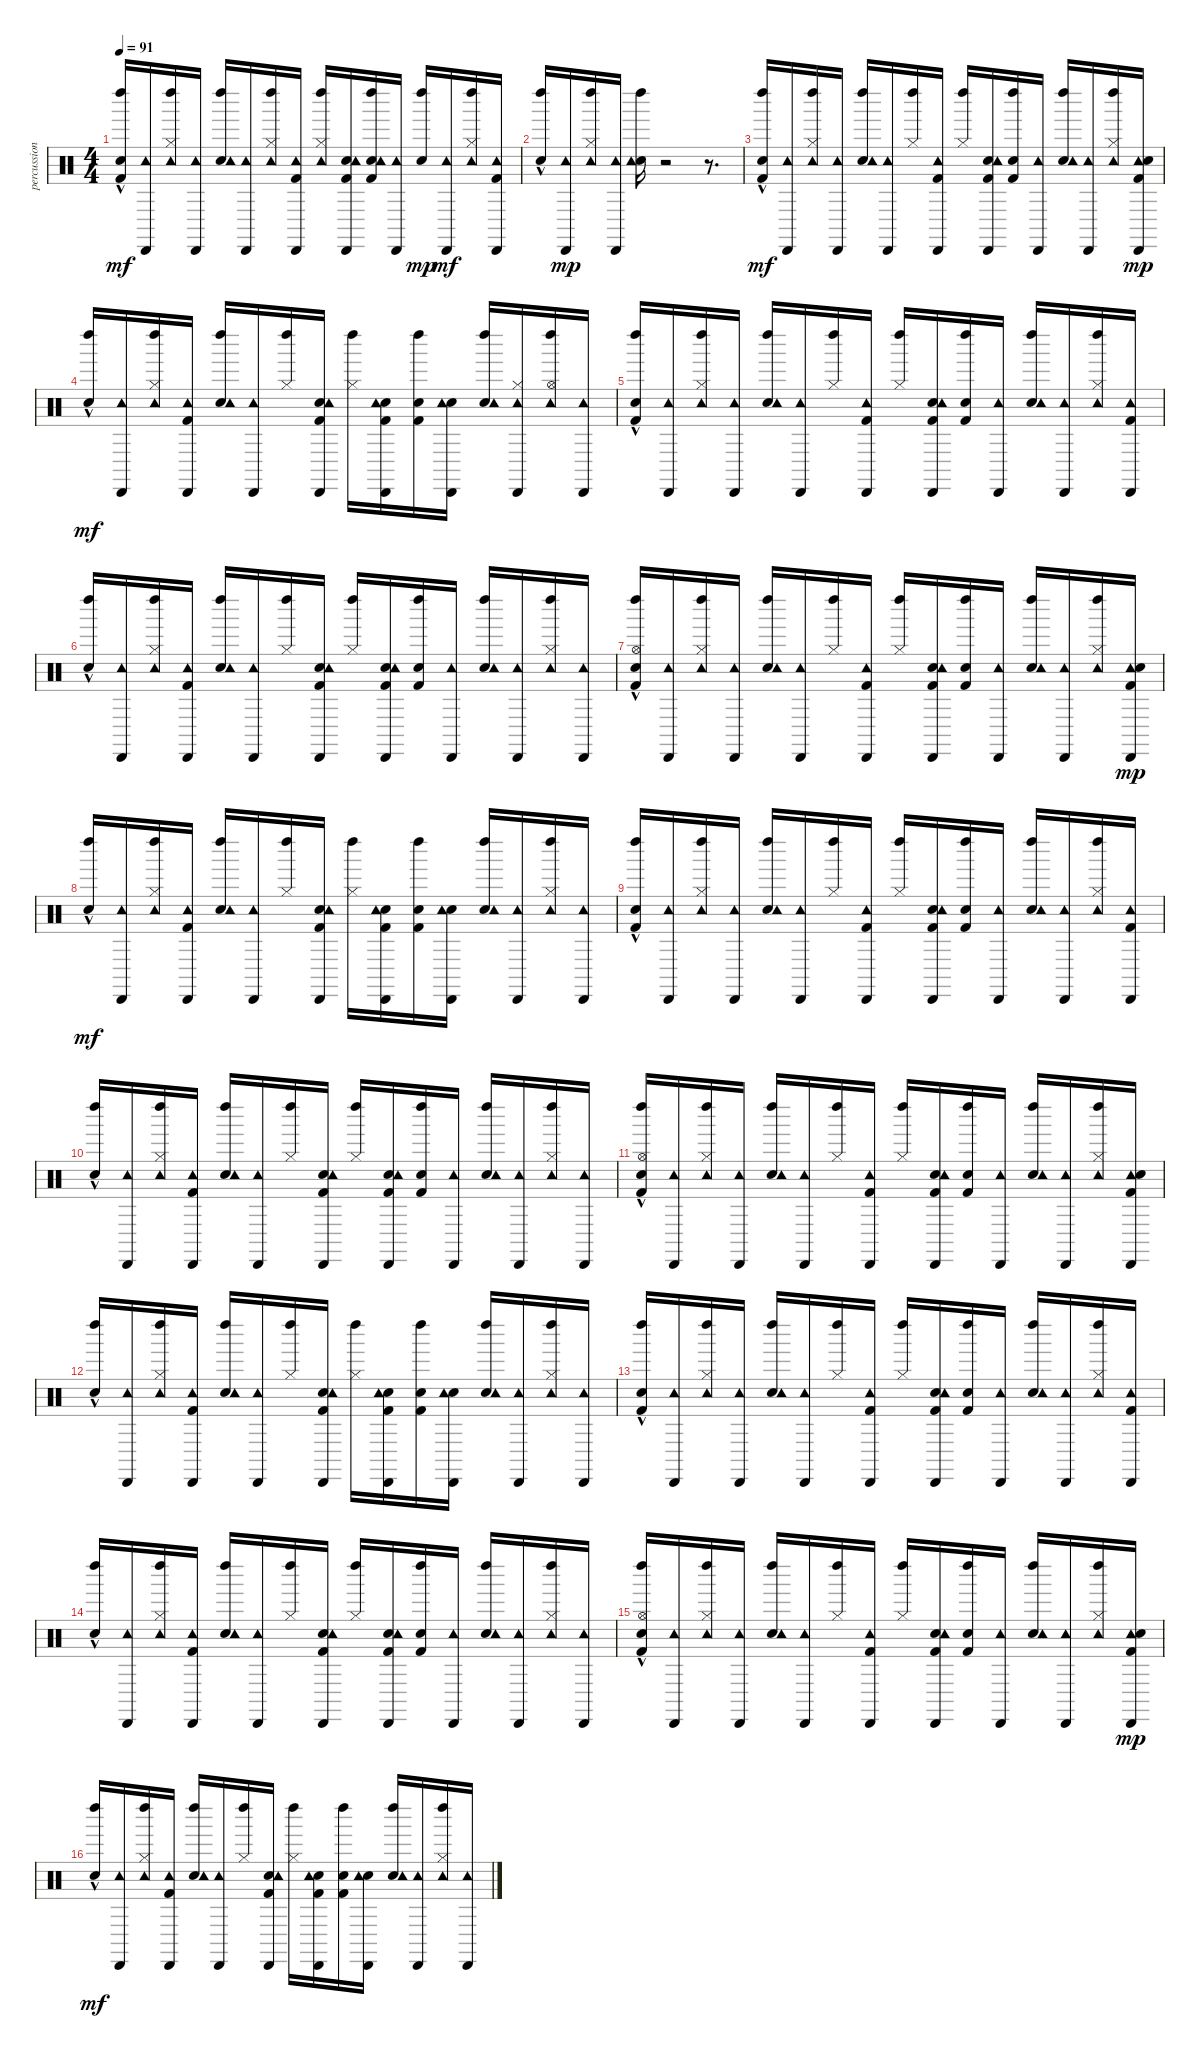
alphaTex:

\track ("percussion" "percussion") {instrument percussion}
\staff {score}
\articulation defaults
\ts (4 4)
\tempo 91
\clef neutral
\ks c
("Electric Snare (hit)"{hac} "Left Maraca (hit)" "Kick (hit) 2").16{dy mf} ("Cabasa (hit)" "Tambourine (hit)").16 ("Hi-Hat (closed)" "Left Maraca (hit)" "Tambourine (hit)").16 ("Cabasa (hit)" "Tambourine (hit)").16 ("Electric Snare (hit)" "Left Maraca (hit)" "Tambourine (hit)").16 ("Cabasa (hit)" "Tambourine (hit)").16 ("Hi-Hat (closed)" "Left Maraca (hit)" "Tambourine (hit)").16 ("Kick (hit) 2" "Cabasa (hit)" "Tambourine (hit)").16 ("Hi-Hat (closed)" "Left Maraca (hit)" "Tambourine (hit)").16 ("Electric Snare (hit)" "Kick (hit) 2" "Cabasa (hit)" "Tambourine (hit)").16 ("Electric Snare (hit)" "Left Maraca (hit)" "Tambourine (hit)" "Kick (hit) 2").16 ("Cabasa (hit)" "Tambourine (hit)").16 ("Electric Snare (hit)" "Left Maraca (hit)").16{dy mp} ("Cabasa (hit)" "Tambourine (hit)").16{dy mf} ("Hi-Hat (closed)" "Left Maraca (hit)" "Tambourine (hit)").16 ("Kick (hit) 2" "Cabasa (hit)" "Tambourine (hit)").16 |
("Left Maraca (hit)" "Electric Snare (hit)"{hac}).16 ("Tambourine (hit)" "Cabasa (hit)").16{dy mp} ("Hi-Hat (closed)" "Tambourine (hit)" "Left Maraca (hit)").16 ("Tambourine (hit)" "Cabasa (hit)").16 ("Electric Snare (hit)" "Tambourine (hit)" "Left Maraca (hit)").16 r.2 r.8{d} |
("Kick (hit) 2" "Left Maraca (hit)" "Electric Snare (hit)"{hac}).16{dy mf volume 14} ("Cabasa (hit)" "Tambourine (hit)").16 ("Hi-Hat (closed)" "Left Maraca (hit)" "Tambourine (hit)").16 ("Cabasa (hit)" "Tambourine (hit)").16 ("Electric Snare (hit)" "Left Maraca (hit)" "Tambourine (hit)").16 ("Cabasa (hit)" "Tambourine (hit)").16 ("Hi-Hat (closed)" "Left Maraca (hit)").16 ("Kick (hit) 2" "Cabasa (hit)" "Tambourine (hit)").16 ("Hi-Hat (closed)" "Left Maraca (hit)").16 ("Kick (hit) 2" "Electric Snare (hit)" "Cabasa (hit)" "Tambourine (hit)").16 ("Kick (hit) 2" "Electric Snare (hit)" "Left Maraca (hit)").16 ("Cabasa (hit)" "Tambourine (hit)").16 ("Electric Snare (hit)" "Left Maraca (hit)" "Tambourine (hit)").16 ("Cabasa (hit)" "Tambourine (hit)").16 ("Tambourine (hit)" "Hi-Hat (closed)" "Left Maraca (hit)").16 ("Kick (hit) 2" "Cabasa (hit)" "Tambourine (hit)" "Electric Snare (hit)").16{dy mp} |
("Electric Snare (hit)"{hac} "Left Maraca (hit)").16{dy mf} ("Cabasa (hit)" "Tambourine (hit)").16 ("Hi-Hat (closed)" "Left Maraca (hit)" "Tambourine (hit)").16 ("Cabasa (hit)" "Tambourine (hit)" "Kick (hit) 2").16 ("Electric Snare (hit)" "Left Maraca (hit)" "Tambourine (hit)").16 ("Cabasa (hit)" "Tambourine (hit)").16 ("Hi-Hat (closed)" "Left Maraca (hit)").16 ("Electric Snare (hit)" "Cabasa (hit)" "Tambourine (hit)" "Kick (hit) 2").16 ("Hi-Hat (closed)" "Left Maraca (hit)").16 ("Electric Snare (hit)" "Cabasa (hit)" "Tambourine (hit)" "Kick (hit) 2").16 ("Electric Snare (hit)" "Left Maraca (hit)" "Kick (hit) 2").16 ("Electric Snare (hit)" "Cabasa (hit)" "Tambourine (hit)").16 ("Electric Snare (hit)" "Left Maraca (hit)" "Tambourine (hit)").16 ("Hi-Hat (closed)" "Cabasa (hit)" "Tambourine (hit)").16 ("Tambourine (hit)" "Left Maraca (hit)" "Hi-Hat (open)").16 ("Tambourine (hit)" "Cabasa (hit)").16 |
("Electric Snare (hit)"{hac} "Kick (hit) 2" "Left Maraca (hit)").16 ("Tambourine (hit)" "Cabasa (hit)").16 ("Hi-Hat (closed)" "Tambourine (hit)" "Left Maraca (hit)").16 ("Tambourine (hit)" "Cabasa (hit)").16 ("Electric Snare (hit)" "Tambourine (hit)" "Left Maraca (hit)").16 ("Tambourine (hit)" "Cabasa (hit)").16 ("Hi-Hat (closed)" "Left Maraca (hit)").16 ("Kick (hit) 2" "Tambourine (hit)" "Cabasa (hit)").16 ("Hi-Hat (closed)" "Left Maraca (hit)").16 ("Electric Snare (hit)" "Kick (hit) 2" "Tambourine (hit)" "Cabasa (hit)").16 ("Electric Snare (hit)" "Left Maraca (hit)" "Kick (hit) 2").16 ("Tambourine (hit)" "Cabasa (hit)").16 ("Electric Snare (hit)" "Tambourine (hit)" "Left Maraca (hit)").16 ("Tambourine (hit)" "Cabasa (hit)").16 ("Tambourine (hit)" "Hi-Hat (closed)" "Left Maraca (hit)").16 ("Tambourine (hit)" "Kick (hit) 2" "Cabasa (hit)").16 |
("Left Maraca (hit)" "Electric Snare (hit)"{hac}).16 ("Cabasa (hit)" "Tambourine (hit)").16 ("Hi-Hat (closed)" "Left Maraca (hit)" "Tambourine (hit)").16 ("Cabasa (hit)" "Tambourine (hit)" "Kick (hit) 2").16 ("Electric Snare (hit)" "Left Maraca (hit)" "Tambourine (hit)").16 ("Cabasa (hit)" "Tambourine (hit)").16 ("Hi-Hat (closed)" "Left Maraca (hit)").16 ("Electric Snare (hit)" "Cabasa (hit)" "Tambourine (hit)" "Kick (hit) 2").16 ("Hi-Hat (closed)" "Left Maraca (hit)").16 ("Electric Snare (hit)" "Cabasa (hit)" "Tambourine (hit)" "Kick (hit) 2").16 ("Electric Snare (hit)" "Left Maraca (hit)" "Kick (hit) 2").16 ("Cabasa (hit)" "Tambourine (hit)").16 ("Electric Snare (hit)" "Left Maraca (hit)" "Tambourine (hit)").16 ("Cabasa (hit)" "Tambourine (hit)").16 ("Left Maraca (hit)" "Tambourine (hit)" "Hi-Hat (closed)").16 ("Cabasa (hit)" "Tambourine (hit)").16 |
("Left Maraca (hit)" "Hi-Hat (open)" "Electric Snare (hit)"{hac} "Kick (hit) 2").16 ("Cabasa (hit)" "Tambourine (hit)").16 ("Hi-Hat (closed)" "Left Maraca (hit)" "Tambourine (hit)").16 ("Cabasa (hit)" "Tambourine (hit)").16 ("Electric Snare (hit)" "Left Maraca (hit)" "Tambourine (hit)").16 ("Cabasa (hit)" "Tambourine (hit)").16 ("Hi-Hat (closed)" "Left Maraca (hit)").16 ("Kick (hit) 2" "Cabasa (hit)" "Tambourine (hit)").16 ("Hi-Hat (closed)" "Left Maraca (hit)").16 ("Electric Snare (hit)" "Kick (hit) 2" "Cabasa (hit)" "Tambourine (hit)").16 ("Electric Snare (hit)" "Kick (hit) 2" "Left Maraca (hit)").16 ("Cabasa (hit)" "Tambourine (hit)").16 ("Electric Snare (hit)" "Left Maraca (hit)" "Tambourine (hit)").16 ("Cabasa (hit)" "Tambourine (hit)").16 ("Left Maraca (hit)" "Tambourine (hit)" "Hi-Hat (closed)").16 ("Cabasa (hit)" "Tambourine (hit)" "Electric Snare (hit)" "Kick (hit) 2").16{dy mp} |
("Electric Snare (hit)"{hac} "Left Maraca (hit)").16{dy mf} ("Tambourine (hit)" "Cabasa (hit)").16 ("Hi-Hat (closed)" "Tambourine (hit)" "Left Maraca (hit)").16 ("Tambourine (hit)" "Cabasa (hit)" "Kick (hit) 2").16 ("Electric Snare (hit)" "Tambourine (hit)" "Left Maraca (hit)").16 ("Tambourine (hit)" "Cabasa (hit)").16 ("Hi-Hat (closed)" "Left Maraca (hit)").16 ("Electric Snare (hit)" "Tambourine (hit)" "Cabasa (hit)" "Kick (hit) 2").16 ("Hi-Hat (closed)" "Left Maraca (hit)").16 ("Electric Snare (hit)" "Tambourine (hit)" "Cabasa (hit)" "Kick (hit) 2").16 ("Electric Snare (hit)" "Left Maraca (hit)" "Kick (hit) 2").16 ("Electric Snare (hit)" "Tambourine (hit)" "Cabasa (hit)").16 ("Electric Snare (hit)" "Tambourine (hit)" "Left Maraca (hit)").16 ("Tambourine (hit)" "Cabasa (hit)").16 ("Tambourine (hit)" "Hi-Hat (closed)" "Left Maraca (hit)").16 ("Tambourine (hit)" "Cabasa (hit)").16 |
("Electric Snare (hit)"{hac} "Left Maraca (hit)" "Kick (hit) 2").16 ("Tambourine (hit)" "Cabasa (hit)").16 ("Hi-Hat (closed)" "Tambourine (hit)" "Left Maraca (hit)").16 ("Tambourine (hit)" "Cabasa (hit)").16 ("Electric Snare (hit)" "Tambourine (hit)" "Left Maraca (hit)").16 ("Tambourine (hit)" "Cabasa (hit)").16 ("Hi-Hat (closed)" "Left Maraca (hit)").16 ("Kick (hit) 2" "Tambourine (hit)" "Cabasa (hit)").16 ("Hi-Hat (closed)" "Left Maraca (hit)").16 ("Electric Snare (hit)" "Kick (hit) 2" "Tambourine (hit)" "Cabasa (hit)").16 ("Electric Snare (hit)" "Left Maraca (hit)" "Kick (hit) 2").16 ("Tambourine (hit)" "Cabasa (hit)").16 ("Electric Snare (hit)" "Tambourine (hit)" "Left Maraca (hit)").16 ("Tambourine (hit)" "Cabasa (hit)").16 ("Tambourine (hit)" "Hi-Hat (closed)" "Left Maraca (hit)").16 ("Tambourine (hit)" "Cabasa (hit)" "Kick (hit) 2").16 |
("Electric Snare (hit)"{hac} "Left Maraca (hit)").16 ("Tambourine (hit)" "Cabasa (hit)").16 ("Hi-Hat (closed)" "Tambourine (hit)" "Left Maraca (hit)").16 ("Tambourine (hit)" "Cabasa (hit)" "Kick (hit) 2").16 ("Electric Snare (hit)" "Tambourine (hit)" "Left Maraca (hit)").16 ("Tambourine (hit)" "Cabasa (hit)").16 ("Hi-Hat (closed)" "Left Maraca (hit)").16 ("Electric Snare (hit)" "Tambourine (hit)" "Cabasa (hit)" "Kick (hit) 2").16 ("Hi-Hat (closed)" "Left Maraca (hit)").16 ("Electric Snare (hit)" "Tambourine (hit)" "Cabasa (hit)" "Kick (hit) 2").16 ("Electric Snare (hit)" "Left Maraca (hit)" "Kick (hit) 2").16 ("Tambourine (hit)" "Cabasa (hit)").16 ("Electric Snare (hit)" "Tambourine (hit)" "Left Maraca (hit)").16 ("Tambourine (hit)" "Cabasa (hit)").16 ("Tambourine (hit)" "Hi-Hat (closed)" "Left Maraca (hit)").16 ("Tambourine (hit)" "Cabasa (hit)").16 |
("Hi-Hat (open)" "Electric Snare (hit)"{hac} "Kick (hit) 2" "Left Maraca (hit)").16 ("Cabasa (hit)" "Tambourine (hit)").16 ("Hi-Hat (closed)" "Left Maraca (hit)" "Tambourine (hit)").16 ("Cabasa (hit)" "Tambourine (hit)").16 ("Electric Snare (hit)" "Left Maraca (hit)" "Tambourine (hit)").16 ("Cabasa (hit)" "Tambourine (hit)").16 ("Hi-Hat (closed)" "Left Maraca (hit)").16 ("Kick (hit) 2" "Cabasa (hit)" "Tambourine (hit)").16 ("Hi-Hat (closed)" "Left Maraca (hit)").16 ("Electric Snare (hit)" "Kick (hit) 2" "Cabasa (hit)" "Tambourine (hit)").16 ("Electric Snare (hit)" "Kick (hit) 2" "Left Maraca (hit)").16 ("Cabasa (hit)" "Tambourine (hit)").16 ("Electric Snare (hit)" "Left Maraca (hit)" "Tambourine (hit)").16 ("Cabasa (hit)" "Tambourine (hit)").16 ("Tambourine (hit)" "Hi-Hat (closed)" "Left Maraca (hit)").16 ("Tambourine (hit)" "Electric Snare (hit)" "Kick (hit) 2" "Cabasa (hit)").16 |
("Left Maraca (hit)" "Electric Snare (hit)"{hac}).16 ("Tambourine (hit)" "Cabasa (hit)").16 ("Hi-Hat (closed)" "Tambourine (hit)" "Left Maraca (hit)").16 ("Tambourine (hit)" "Cabasa (hit)" "Kick (hit) 2").16 ("Electric Snare (hit)" "Tambourine (hit)" "Left Maraca (hit)").16 ("Tambourine (hit)" "Cabasa (hit)").16 ("Hi-Hat (closed)" "Left Maraca (hit)").16 ("Electric Snare (hit)" "Tambourine (hit)" "Cabasa (hit)" "Kick (hit) 2").16 ("Hi-Hat (closed)" "Left Maraca (hit)").16 ("Electric Snare (hit)" "Tambourine (hit)" "Cabasa (hit)" "Kick (hit) 2").16 ("Electric Snare (hit)" "Left Maraca (hit)" "Kick (hit) 2").16 ("Electric Snare (hit)" "Tambourine (hit)" "Cabasa (hit)").16 ("Electric Snare (hit)" "Tambourine (hit)" "Left Maraca (hit)").16 ("Tambourine (hit)" "Cabasa (hit)").16 ("Left Maraca (hit)" "Tambourine (hit)" "Hi-Hat (closed)").16 ("Cabasa (hit)" "Tambourine (hit)").16 |
("Left Maraca (hit)" "Kick (hit) 2" "Electric Snare (hit)"{hac}).16 ("Tambourine (hit)" "Cabasa (hit)").16 ("Hi-Hat (closed)" "Tambourine (hit)" "Left Maraca (hit)").16 ("Tambourine (hit)" "Cabasa (hit)").16 ("Electric Snare (hit)" "Tambourine (hit)" "Left Maraca (hit)").16 ("Tambourine (hit)" "Cabasa (hit)").16 ("Hi-Hat (closed)" "Left Maraca (hit)").16 ("Kick (hit) 2" "Tambourine (hit)" "Cabasa (hit)").16 ("Hi-Hat (closed)" "Left Maraca (hit)").16 ("Kick (hit) 2" "Electric Snare (hit)" "Tambourine (hit)" "Cabasa (hit)").16 ("Electric Snare (hit)" "Left Maraca (hit)" "Kick (hit) 2").16 ("Tambourine (hit)" "Cabasa (hit)").16 ("Electric Snare (hit)" "Tambourine (hit)" "Left Maraca (hit)").16 ("Tambourine (hit)" "Cabasa (hit)").16 ("Left Maraca (hit)" "Tambourine (hit)" "Hi-Hat (closed)").16 ("Cabasa (hit)" "Kick (hit) 2" "Tambourine (hit)").16 |
("Left Maraca (hit)" "Electric Snare (hit)"{hac}).16 ("Cabasa (hit)" "Tambourine (hit)").16 ("Hi-Hat (closed)" "Left Maraca (hit)" "Tambourine (hit)").16 ("Cabasa (hit)" "Tambourine (hit)" "Kick (hit) 2").16 ("Electric Snare (hit)" "Left Maraca (hit)" "Tambourine (hit)").16 ("Cabasa (hit)" "Tambourine (hit)").16 ("Hi-Hat (closed)" "Left Maraca (hit)").16 ("Electric Snare (hit)" "Cabasa (hit)" "Tambourine (hit)" "Kick (hit) 2").16 ("Hi-Hat (closed)" "Left Maraca (hit)").16 ("Electric Snare (hit)" "Cabasa (hit)" "Tambourine (hit)" "Kick (hit) 2").16 ("Electric Snare (hit)" "Left Maraca (hit)" "Kick (hit) 2").16 ("Cabasa (hit)" "Tambourine (hit)").16 ("Electric Snare (hit)" "Left Maraca (hit)" "Tambourine (hit)").16 ("Cabasa (hit)" "Tambourine (hit)").16 ("Left Maraca (hit)" "Tambourine (hit)" "Hi-Hat (closed)").16 ("Cabasa (hit)" "Tambourine (hit)").16 |
("Left Maraca (hit)" "Kick (hit) 2" "Hi-Hat (open)" "Electric Snare (hit)"{hac}).16 ("Tambourine (hit)" "Cabasa (hit)").16 ("Hi-Hat (closed)" "Tambourine (hit)" "Left Maraca (hit)").16 ("Tambourine (hit)" "Cabasa (hit)").16 ("Electric Snare (hit)" "Tambourine (hit)" "Left Maraca (hit)").16 ("Tambourine (hit)" "Cabasa (hit)").16 ("Hi-Hat (closed)" "Left Maraca (hit)").16 ("Kick (hit) 2" "Tambourine (hit)" "Cabasa (hit)").16 ("Hi-Hat (closed)" "Left Maraca (hit)").16 ("Kick (hit) 2" "Electric Snare (hit)" "Tambourine (hit)" "Cabasa (hit)").16 ("Kick (hit) 2" "Electric Snare (hit)" "Left Maraca (hit)").16 ("Tambourine (hit)" "Cabasa (hit)").16 ("Electric Snare (hit)" "Tambourine (hit)" "Left Maraca (hit)").16 ("Tambourine (hit)" "Cabasa (hit)").16 ("Left Maraca (hit)" "Tambourine (hit)" "Hi-Hat (closed)").16 ("Cabasa (hit)" "Kick (hit) 2" "Tambourine (hit)" "Electric Snare (hit)").16{dy mp} |
("Electric Snare (hit)"{hac} "Left Maraca (hit)").16{dy mf} ("Tambourine (hit)" "Cabasa (hit)").16 ("Hi-Hat (closed)" "Tambourine (hit)" "Left Maraca (hit)").16 ("Tambourine (hit)" "Cabasa (hit)" "Kick (hit) 2").16 ("Electric Snare (hit)" "Tambourine (hit)" "Left Maraca (hit)").16 ("Tambourine (hit)" "Cabasa (hit)").16 ("Hi-Hat (closed)" "Left Maraca (hit)").16 ("Electric Snare (hit)" "Tambourine (hit)" "Cabasa (hit)" "Kick (hit) 2").16 ("Hi-Hat (closed)" "Left Maraca (hit)").16 ("Electric Snare (hit)" "Tambourine (hit)" "Cabasa (hit)" "Kick (hit) 2").16 ("Electric Snare (hit)" "Left Maraca (hit)" "Kick (hit) 2").16 ("Electric Snare (hit)" "Tambourine (hit)" "Cabasa (hit)").16 ("Electric Snare (hit)" "Tambourine (hit)" "Left Maraca (hit)").16 ("Tambourine (hit)" "Cabasa (hit)").16 ("Tambourine (hit)" "Hi-Hat (closed)" "Left Maraca (hit)").16 ("Tambourine (hit)" "Cabasa (hit)").16
